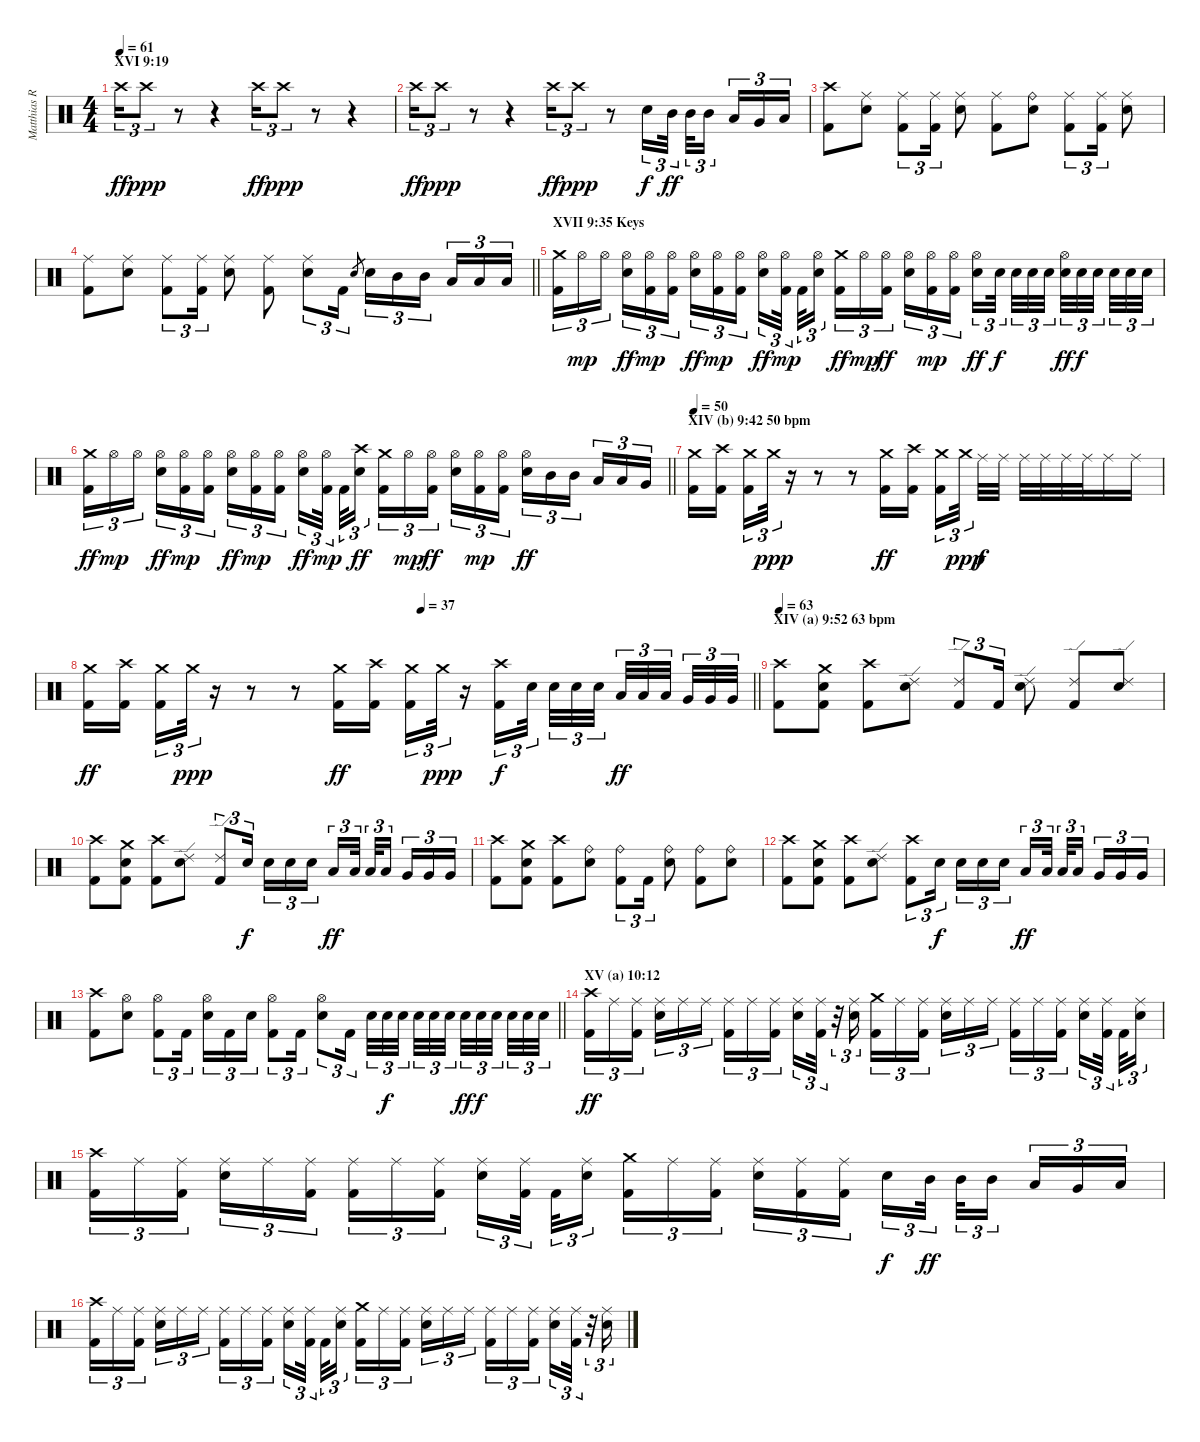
\track ("Matthias R." "Matthias R") {instrument percussion}
\staff {score}
\articulation defaults
\ts (4 4)
\section ("" "XVI 9:19")
\tempo 61
\clef neutral
\ks c "Crash high (hit)".16{tu (3 2) dy ff} "Crash high (hit)".8{tu (3 2) dy ppp}
r.8 r.4 "Crash high (hit)".16{tu (3 2) dy ff} "Crash high (hit)".8{tu (3 2) dy ppp} r.8 r.4 |
"Crash high (hit)".16{tu (3 2) dy ff} "Crash high (hit)".8{tu (3 2) dy ppp} r.8 r.4 "Crash high (hit)".16{tu (3 2) dy ff} "Crash high (hit)".8{tu (3 2) dy ppp} r.8 "Electric Snare (hit)".16{tu (3 2) dy f} "Mid Tom (hit)".32{tu (3 2) dy ff beam splitsecondary} "Mid Tom (hit)".32{tu (3 2)} "Mid Tom (hit)".16{tu (3 2) beam splitsecondary} "Low Tom (hit)".16{tu (3 2)} "Very Low Tom (hit)".16{tu (3 2)} "Low Tom (hit)".16{tu (3 2)} |
("Crash high (hit)" "Kick (hit) 2").8 ("Ride (middle)" "Electric Snare (hit)").8 ("Ride (middle)" "Kick (hit) 2").8{tu (3 2)} ("Ride (middle)" "Kick (hit) 2").16{tu (3 2)} ("Ride (middle)" "Electric Snare (hit)").8 ("Ride (middle)" "Kick (hit) 2").8 ("Ride (bell)" "Electric Snare (hit)").8 ("Ride (middle)" "Kick (hit) 2").8{tu (3 2)} ("Ride (middle)" "Kick (hit) 2").16{tu (3 2)} ("Ride (middle)" "Electric Snare (hit)").8 |
\barLineRight lightlight
("Ride (middle)" "Kick (hit) 2").8 ("Ride (middle)" "Electric Snare (hit)").8 ("Ride (middle)" "Kick (hit) 2").8{tu (3 2)} ("Ride (middle)" "Kick (hit) 2").16{tu (3 2)} ("Ride (middle)" "Electric Snare (hit)").8 ("Ride (middle)" "Kick (hit) 2").8 ("Ride (middle)" "Electric Snare (hit)").8{tu (3 2)} "Kick (hit) 2".16{tu (3 2)} "Electric Snare (hit)".8{gr} "Electric Snare (hit)".16{tu (3 2)} "Mid Tom (hit)".16{tu (3 2)} "Mid Tom (hit)".16{tu (3 2) beam splitsecondary} "Low Tom (hit)".16{tu (3 2)} "Low Tom (hit)".16{tu (3 2)} "Low Tom (hit)".16{tu (3 2)} |
\section ("" "XVII 9:35 Keys")
("Crash medium (hit)" "Kick (hit) 2").16{tu (3 2)} "Hi-Hat (open)".16{tu (3 2) dy mp} "Hi-Hat (open)".16{tu (3 2) beam splitsecondary} ("Hi-Hat (open)" "Electric Snare (hit)").16{tu (3 2) dy ff} ("Hi-Hat (open)" "Kick (hit) 2").16{tu (3 2) dy mp} ("Hi-Hat (open)" "Kick (hit) 2").16{tu (3 2)} ("Hi-Hat (open)" "Electric Snare (hit)").16{tu (3 2) dy ff} ("Hi-Hat (open)" "Kick (hit) 2").16{tu (3 2) dy mp} ("Hi-Hat (open)" "Kick (hit) 2").16{tu (3 2) beam splitsecondary} ("Hi-Hat (open)" "Electric Snare (hit)").16{tu (3 2) dy ff} ("Hi-Hat (open)" "Kick (hit) 2").32{tu (3 2) dy mp beam splitsecondary} "Kick (hit) 2".32{tu (3 2)} ("Hi-Hat (open)" "Electric Snare (hit)").16{tu (3 2)} ("Crash medium (hit)" "Kick (hit) 2").16{tu (3 2) dy ff} "Hi-Hat (open)".16{tu (3 2) dy mp} ("Hi-Hat (open)" "Kick (hit) 2").16{tu (3 2) dy ff beam splitsecondary} ("Hi-Hat (open)" "Electric Snare (hit)").16{tu (3 2)} ("Hi-Hat (open)" "Kick (hit) 2").16{tu (3 2) dy mp} ("Hi-Hat (open)" "Kick (hit) 2").16{tu (3 2)} ("Hi-Hat (open)" "Electric Snare (hit)").16{tu (3 2) dy ff} "Electric Snare (hit)".32{tu (3 2) dy f beam splitsecondary} "Electric Snare (hit)".32{tu (3 2)} "Electric Snare (hit)".32{tu (3 2)} "Electric Snare (hit)".32{tu (3 2) beam splitsecondary} ("Hi-Hat (open)" "Electric Snare (hit)").32{tu (3 2) dy ff} "Electric Snare (hit)".32{tu (3 2) dy f} "Electric Snare (hit)".32{tu (3 2) beam splitsecondary} "Electric Snare (hit)".32{tu (3 2)} "Electric Snare (hit)".32{tu (3 2)} "Electric Snare (hit)".32{tu (3 2)} |
\barLineRight lightlight
("Crash medium (hit)" "Kick (hit) 2").16{tu (3 2) dy ff} "Hi-Hat (open)".16{tu (3 2) dy mp} "Hi-Hat (open)".16{tu (3 2) beam splitsecondary} ("Hi-Hat (open)" "Electric Snare (hit)").16{tu (3 2) dy ff} ("Hi-Hat (open)" "Kick (hit) 2").16{tu (3 2) dy mp} ("Hi-Hat (open)" "Kick (hit) 2").16{tu (3 2)} ("Hi-Hat (open)" "Electric Snare (hit)").16{tu (3 2) dy ff} ("Hi-Hat (open)" "Kick (hit) 2").16{tu (3 2) dy mp} ("Hi-Hat (open)" "Kick (hit) 2").16{tu (3 2) beam splitsecondary} ("Hi-Hat (open)" "Electric Snare (hit)").16{tu (3 2) dy ff} ("Hi-Hat (open)" "Kick (hit) 2").32{tu (3 2) dy mp beam splitsecondary} "Kick (hit) 2".32{tu (3 2)} ("Crash high (hit)" "Electric Snare (hit)").16{tu (3 2) dy ff} ("Crash medium (hit)" "Kick (hit) 2").16{tu (3 2)} "Hi-Hat (open)".16{tu (3 2) dy mp} ("Hi-Hat (open)" "Kick (hit) 2").16{tu (3 2) dy ff beam splitsecondary} ("Hi-Hat (open)" "Electric Snare (hit)").16{tu (3 2)} ("Hi-Hat (open)" "Kick (hit) 2").16{tu (3 2) dy mp} ("Hi-Hat (open)" "Kick (hit) 2").16{tu (3 2)} ("Hi-Hat (open)" "Electric Snare (hit)").16{tu (3 2) dy ff} "Mid Tom (hit)".16{tu (3 2)} "Mid Tom (hit)".16{tu (3 2) beam splitsecondary} "Low Tom (hit)".16{tu (3 2)} "Low Tom (hit)".16{tu (3 2)} "Very Low Tom (hit)".16{tu (3 2)} |
\section ("" "XIV (b) 9:42 50 bpm")
\tempo 50
("Crash medium (hit)" "Kick (hit) 2").16 ("Crash high (hit)" "Kick (hit) 2").16{beam splitsecondary} ("Crash medium (hit)" "Kick (hit) 2").16{tu (3 2)} "Crash medium (hit)".32{tu (3 2) dy ppp} r.16 r.8 r.8 ("Crash medium (hit)" "Kick (hit) 2").16{dy ff} ("Crash high (hit)" "Kick (hit) 2").16{beam splitsecondary} ("Crash medium (hit)" "Kick (hit) 2").16{tu (3 2)} "Crash medium (hit)".32{tu (3 2) dy ppp beam splitsecondary} "Ride (middle)".32{dy f} "Ride (middle)".32 "Ride (middle)".32 "Ride (middle)".32 "Ride (middle)".32 "Ride (middle)".32 "Ride (middle)".16 "Ride (middle)".16 |
\tempo (37 0.5)
\barLineRight lightlight
("Crash medium (hit)" "Kick (hit) 2").16{dy ff} ("Crash high (hit)" "Kick (hit) 2").16{beam splitsecondary} ("Crash medium (hit)" "Kick (hit) 2").16{tu (3 2)} "Crash medium (hit)".32{tu (3 2) dy ppp} r.16 r.8 r.8 ("Crash medium (hit)" "Kick (hit) 2").16{dy ff} ("Crash high (hit)" "Kick (hit) 2").16{beam splitsecondary} ("Crash medium (hit)" "Kick (hit) 2").16{tu (3 2)} "Crash medium (hit)".32{tu (3 2) dy ppp} r.16 ("Crash high (hit)" "Kick (hit) 2").16{tu (3 2) dy f} "Electric Snare (hit)".32{tu (3 2) beam splitsecondary} "Electric Snare (hit)".32{tu (3 2)} "Electric Snare (hit)".32{tu (3 2)} "Electric Snare (hit)".32{tu (3 2) beam splitsecondary} "Low Tom (hit)".32{tu (3 2) dy ff} "Low Tom (hit)".32{tu (3 2)} "Low Tom (hit)".32{tu (3 2) beam splitsecondary} "Very Low Tom (hit)".32{tu (3 2)} "Very Low Tom (hit)".32{tu (3 2)} "Very Low Tom (hit)".32{tu (3 2)} |
\section ("" "XIV (a) 9:52 63 bpm")
\tempo 63
("Crash high (hit)" "Kick (hit) 2").8 ("Crash medium (hit)" "Electric Snare (hit)" "Kick (hit) 2").8 ("Crash high (hit)" "Kick (hit) 2").8 ("Ride (edge) 2" "Electric Snare (hit)").8 ("Ride (edge) 2" "Kick (hit) 2").8{tu (3 2)} "Kick (hit) 2".16{tu (3 2)} ("Ride (edge) 2" "Electric Snare (hit)").8 ("Ride (edge) 2" "Kick (hit) 2").8 ("Ride (edge) 2" "Electric Snare (hit)").8 |
("Crash high (hit)" "Kick (hit) 2").8 ("Crash medium (hit)" "Electric Snare (hit)" "Kick (hit) 2").8 ("Crash high (hit)" "Kick (hit) 2").8 ("Ride (edge) 2" "Electric Snare (hit)").8 ("Ride (edge) 2" "Kick (hit) 2").8{tu (3 2)} "Electric Snare (hit)".16{tu (3 2) dy f beam splitsecondary} "Electric Snare (hit)".16{tu (3 2)} "Electric Snare (hit)".16{tu (3 2)} "Electric Snare (hit)".16{tu (3 2)} "Low Tom (hit)".16{tu (3 2) dy ff} "Low Tom (hit)".32{tu (3 2) beam splitsecondary} "Low Tom (hit)".32{tu (3 2)} "Low Tom (hit)".16{tu (3 2) beam splitsecondary} "Very Low Tom (hit)".16{tu (3 2)} "Very Low Tom (hit)".16{tu (3 2)} "Very Low Tom (hit)".16{tu (3 2)} |
("Crash high (hit)" "Kick (hit) 2").8 ("Crash medium (hit)" "Electric Snare (hit)" "Kick (hit) 2").8 ("Crash high (hit)" "Kick (hit) 2").8 ("Ride (bell)" "Electric Snare (hit)").8 ("Ride (bell)" "Kick (hit) 2").8{tu (3 2)} "Kick (hit) 2".16{tu (3 2)} ("Ride (bell)" "Electric Snare (hit)").8 ("Ride (bell)" "Kick (hit) 2").8 ("Ride (bell)" "Electric Snare (hit)").8 |
("Crash high (hit)" "Kick (hit) 2").8 ("Crash medium (hit)" "Electric Snare (hit)" "Kick (hit) 2").8 ("Crash high (hit)" "Kick (hit) 2").8 ("Ride (edge) 2" "Electric Snare (hit)").8 ("Crash high (hit)" "Kick (hit) 2").8{tu (3 2)} "Electric Snare (hit)".16{tu (3 2) dy f beam splitsecondary} "Electric Snare (hit)".16{tu (3 2)} "Electric Snare (hit)".16{tu (3 2)} "Electric Snare (hit)".16{tu (3 2)} "Low Tom (hit)".16{tu (3 2) dy ff} "Low Tom (hit)".32{tu (3 2) beam splitsecondary} "Low Tom (hit)".32{tu (3 2)} "Low Tom (hit)".16{tu (3 2) beam splitsecondary} "Very Low Tom (hit)".16{tu (3 2)} "Very Low Tom (hit)".16{tu (3 2)} "Very Low Tom (hit)".16{tu (3 2)} |
\barLineRight lightlight
("Crash high (hit)" "Kick (hit) 2").8 ("Hi-Hat (open)" "Electric Snare (hit)").8 ("Hi-Hat (open)" "Kick (hit) 2").8{tu (3 2)} "Kick (hit) 2".16{tu (3 2) beam splitsecondary} ("Hi-Hat (open)" "Electric Snare (hit)").16{tu (3 2)} "Kick (hit) 2".16{tu (3 2)} "Electric Snare (hit)".16{tu (3 2)} ("Hi-Hat (open)" "Kick (hit) 2").8{tu (3 2)} "Kick (hit) 2".16{tu (3 2)} ("Hi-Hat (open)" "Electric Snare (hit)").8{tu (3 2)} "Kick (hit) 2".16{tu (3 2)} "Electric Snare (hit)".32{tu (3 2)} "Electric Snare (hit)".32{tu (3 2) dy f} "Electric Snare (hit)".32{tu (3 2) beam splitsecondary} "Electric Snare (hit)".32{tu (3 2)} "Electric Snare (hit)".32{tu (3 2)} "Electric Snare (hit)".32{tu (3 2) beam splitsecondary} "Electric Snare (hit)".32{tu (3 2) dy ff} "Electric Snare (hit)".32{tu (3 2) dy f} "Electric Snare (hit)".32{tu (3 2) beam splitsecondary} "Electric Snare (hit)".32{tu (3 2)} "Electric Snare (hit)".32{tu (3 2)} "Electric Snare (hit)".32{tu (3 2)} |
\section ("" "XV (a) 10:12")
("Crash high (hit)" "Kick (hit) 2").16{tu (3 2) dy ff} "Ride (middle)".16{tu (3 2)} ("Ride (middle)" "Kick (hit) 2").16{tu (3 2) beam splitsecondary} ("Ride (middle)" "Electric Snare (hit)").16{tu (3 2)} "Ride (middle)".16{tu (3 2)} "Ride (middle)".16{tu (3 2)} ("Ride (middle)" "Kick (hit) 2").16{tu (3 2)} "Ride (middle)".16{tu (3 2)} ("Ride (middle)" "Kick (hit) 2").16{tu (3 2) beam splitsecondary} ("Ride (middle)" "Electric Snare (hit)").16{tu (3 2)} ("Ride (middle)" "Kick (hit) 2").32{tu (3 2)} r.32{tu (3 2)} ("Ride (middle)" "Electric Snare (hit)").16{tu (3 2)} ("Crash medium (hit)" "Kick (hit) 2").16{tu (3 2)} "Ride (middle)".16{tu (3 2)} ("Ride (middle)" "Kick (hit) 2").16{tu (3 2) beam splitsecondary} ("Ride (middle)" "Electric Snare (hit)").16{tu (3 2)} "Ride (middle)".16{tu (3 2)} "Ride (middle)".16{tu (3 2)} ("Ride (middle)" "Kick (hit) 2").16{tu (3 2)} "Ride (middle)".16{tu (3 2)} ("Ride (middle)" "Kick (hit) 2").16{tu (3 2) beam splitsecondary} ("Ride (middle)" "Electric Snare (hit)").16{tu (3 2)} ("Ride (middle)" "Kick (hit) 2").32{tu (3 2) beam splitsecondary} "Kick (hit) 2".32{tu (3 2)} ("Ride (middle)" "Electric Snare (hit)").16{tu (3 2)} |
("Crash high (hit)" "Kick (hit) 2").16{tu (3 2)} "Ride (middle)".16{tu (3 2)} ("Ride (middle)" "Kick (hit) 2").16{tu (3 2) beam splitsecondary} ("Ride (middle)" "Electric Snare (hit)").16{tu (3 2)} "Ride (middle)".16{tu (3 2)} ("Ride (middle)" "Kick (hit) 2").16{tu (3 2)} ("Ride (middle)" "Kick (hit) 2").16{tu (3 2)} "Ride (middle)".16{tu (3 2)} ("Ride (middle)" "Kick (hit) 2").16{tu (3 2) beam splitsecondary} ("Ride (middle)" "Electric Snare (hit)").16{tu (3 2)} ("Ride (middle)" "Kick (hit) 2").32{tu (3 2) beam splitsecondary} "Kick (hit) 2".32{tu (3 2)} ("Ride (middle)" "Electric Snare (hit)").16{tu (3 2)} ("Crash medium (hit)" "Kick (hit) 2").16{tu (3 2)} "Ride (middle)".16{tu (3 2)} ("Ride (middle)" "Kick (hit) 2").16{tu (3 2) beam splitsecondary} ("Ride (middle)" "Electric Snare (hit)").16{tu (3 2)} ("Ride (middle)" "Kick (hit) 2").16{tu (3 2)} ("Ride (middle)" "Kick (hit) 2").16{tu (3 2)} "Electric Snare (hit)".16{tu (3 2) dy f} "Mid Tom (hit)".32{tu (3 2) dy ff beam splitsecondary} "Mid Tom (hit)".32{tu (3 2)} "Mid Tom (hit)".16{tu (3 2) beam splitsecondary} "Low Tom (hit)".16{tu (3 2)} "Very Low Tom (hit)".16{tu (3 2)} "Low Tom (hit)".16{tu (3 2)} |
("Crash high (hit)" "Kick (hit) 2").16{tu (3 2)} "Ride (middle)".16{tu (3 2)} ("Ride (middle)" "Kick (hit) 2").16{tu (3 2) beam splitsecondary} ("Ride (middle)" "Electric Snare (hit)").16{tu (3 2)} "Ride (middle)".16{tu (3 2)} "Ride (middle)".16{tu (3 2)} ("Ride (middle)" "Kick (hit) 2").16{tu (3 2)} "Ride (middle)".16{tu (3 2)} ("Ride (middle)" "Kick (hit) 2").16{tu (3 2) beam splitsecondary} ("Ride (middle)" "Electric Snare (hit)").16{tu (3 2)} ("Ride (middle)" "Kick (hit) 2").32{tu (3 2) beam splitsecondary} "Kick (hit) 2".32{tu (3 2)} ("Ride (middle)" "Electric Snare (hit)").16{tu (3 2)} ("Crash medium (hit)" "Kick (hit) 2").16{tu (3 2)} "Ride (middle)".16{tu (3 2)} ("Ride (middle)" "Kick (hit) 2").16{tu (3 2) beam splitsecondary} ("Ride (middle)" "Electric Snare (hit)").16{tu (3 2)} "Ride (middle)".16{tu (3 2)} "Ride (middle)".16{tu (3 2)} ("Ride (middle)" "Kick (hit) 2").16{tu (3 2)} "Ride (middle)".16{tu (3 2)} ("Ride (middle)" "Kick (hit) 2").16{tu (3 2) beam splitsecondary} ("Ride (middle)" "Electric Snare (hit)").16{tu (3 2)} ("Ride (middle)" "Kick (hit) 2").32{tu (3 2)} r.32{tu (3 2)} ("Ride (middle)" "Electric Snare (hit)").16{tu (3 2)}
